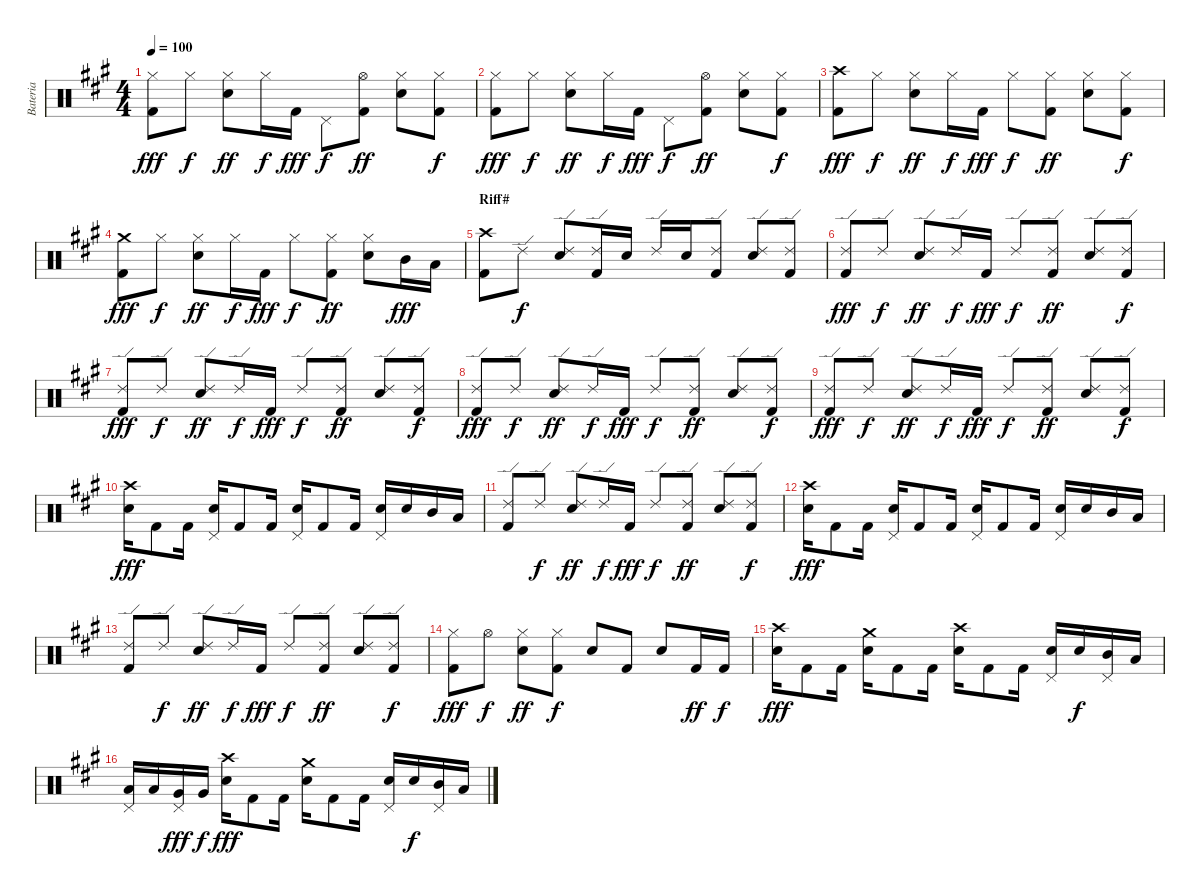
\track ("Bateria" "Bateria") {instrument percussion}
\staff {score}
\articulation defaults
\ts (4 4)
\tempo 100
\clef neutral
\ks f#minor
("Hi-Hat (closed)" "Kick (hit) 2").8{dy fff} "Hi-Hat (closed)".8{dy f} ("Hi-Hat (closed)" "Electric Snare (hit)").8{dy ff} "Hi-Hat (closed)".16{dy f} "Kick (hit) 2".16{dy fff} "Pedal Hi-Hat (hit)".8{dy f} ("Hi-Hat (open)" "Kick (hit) 2").8{dy ff} ("Hi-Hat (closed)" "Electric Snare (hit)").8 ("Hi-Hat (closed)" "Kick (hit) 2").8{dy f} |
("Hi-Hat (closed)" "Kick (hit) 2").8{dy fff} "Hi-Hat (closed)".8{dy f} ("Hi-Hat (closed)" "Electric Snare (hit)").8{dy ff} "Hi-Hat (closed)".16{dy f} "Kick (hit) 2".16{dy fff} "Pedal Hi-Hat (hit)".8{dy f} ("Hi-Hat (open)" "Kick (hit) 2").8{dy ff} ("Hi-Hat (closed)" "Electric Snare (hit)").8 ("Hi-Hat (closed)" "Kick (hit) 2").8{dy f} |
("Crash high (hit)" "Kick (hit) 2").8{dy fff} "Hi-Hat (closed)".8{dy f} ("Hi-Hat (closed)" "Electric Snare (hit)").8{dy ff} "Hi-Hat (closed)".16{dy f} "Kick (hit) 2".16{dy fff} "Hi-Hat (closed)".8{dy f} ("Hi-Hat (closed)" "Kick (hit) 2").8{dy ff} ("Hi-Hat (closed)" "Electric Snare (hit)").8 ("Hi-Hat (closed)" "Kick (hit) 2").8{dy f} |
("Crash medium (hit)" "Kick (hit) 2").8{dy fff} "Hi-Hat (closed)".8{dy f} ("Hi-Hat (closed)" "Electric Snare (hit)").8{dy ff} "Hi-Hat (closed)".16{dy f} "Kick (hit) 2".16{dy fff} "Hi-Hat (closed)".8{dy f} ("Hi-Hat (closed)" "Kick (hit) 2").8{dy ff} ("Hi-Hat (closed)" "Electric Snare (hit)").8 "Mid Tom (hit)".16{dy fff} "Low Tom (hit)".16 |
\section ("" "Riff#")
("Crash high (hit)" "Kick (hit) 2").8 "Ride (edge) 2".8{dy f} ("Ride (edge) 2" "Electric Snare (hit)").8 ("Ride (edge) 2" "Kick (hit) 2").16 "Electric Snare (hit)".16 "Ride (edge) 2".16 "Electric Snare (hit)".16 ("Ride (edge) 2" "Kick (hit) 2").8 ("Ride (edge) 2" "Electric Snare (hit)").8 ("Ride (edge) 2" "Kick (hit) 2").8 |
("Ride (edge) 2" "Kick (hit) 2").8{dy fff} "Ride (edge) 2".8{dy f} ("Ride (edge) 2" "Electric Snare (hit)").8{dy ff} "Ride (edge) 2".16{dy f} "Kick (hit) 2".16{dy fff} "Ride (edge) 2".8{dy f} ("Ride (edge) 2" "Kick (hit) 2").8{dy ff} ("Ride (edge) 2" "Electric Snare (hit)").8 ("Ride (edge) 2" "Kick (hit) 2").8{dy f} |
("Ride (edge) 2" "Kick (hit) 2").8{dy fff} "Ride (edge) 2".8{dy f} ("Ride (edge) 2" "Electric Snare (hit)").8{dy ff} "Ride (edge) 2".16{dy f} "Kick (hit) 2".16{dy fff} "Ride (edge) 2".8{dy f} ("Ride (edge) 2" "Kick (hit) 2").8{dy ff} ("Ride (edge) 2" "Electric Snare (hit)").8 ("Ride (edge) 2" "Kick (hit) 2").8{dy f} |
("Ride (edge) 2" "Kick (hit) 2").8{dy fff} "Ride (edge) 2".8{dy f} ("Ride (edge) 2" "Electric Snare (hit)").8{dy ff} "Ride (edge) 2".16{dy f} "Kick (hit) 2".16{dy fff} "Ride (edge) 2".8{dy f} ("Ride (edge) 2" "Kick (hit) 2").8{dy ff} ("Ride (edge) 2" "Electric Snare (hit)").8 ("Ride (edge) 2" "Kick (hit) 2").8{dy f} |
("Ride (edge) 2" "Kick (hit) 2").8{dy fff} "Ride (edge) 2".8{dy f} ("Ride (edge) 2" "Electric Snare (hit)").8{dy ff} "Ride (edge) 2".16{dy f} "Kick (hit) 2".16{dy fff} "Ride (edge) 2".8{dy f} ("Ride (edge) 2" "Kick (hit) 2").8{dy ff} ("Ride (edge) 2" "Electric Snare (hit)").8 ("Ride (edge) 2" "Kick (hit) 2").8{dy f} |
("Crash high (hit)" "Electric Snare (hit)").16{dy fff} "Kick (hit) 2".8 "Kick (hit) 2".16 ("Pedal Hi-Hat (hit)" "Electric Snare (hit)").16 "Kick (hit) 2".8 "Kick (hit) 2".16 ("Pedal Hi-Hat (hit)" "Electric Snare (hit)").16 "Kick (hit) 2".8 "Kick (hit) 2".16 ("Pedal Hi-Hat (hit)" "Electric Snare (hit)").16 "Electric Snare (hit)".16 "Mid Tom (hit)".16 "Low Tom (hit)".16 |
("Ride (edge) 2" "Kick (hit) 2").8 "Ride (edge) 2".8{dy f} ("Ride (edge) 2" "Electric Snare (hit)").8{dy ff} "Ride (edge) 2".16{dy f} "Kick (hit) 2".16{dy fff} "Ride (edge) 2".8{dy f} ("Ride (edge) 2" "Kick (hit) 2").8{dy ff} ("Ride (edge) 2" "Electric Snare (hit)").8 ("Ride (edge) 2" "Kick (hit) 2").8{dy f} |
("Crash high (hit)" "Electric Snare (hit)").16{dy fff} "Kick (hit) 2".8 "Kick (hit) 2".16 ("Pedal Hi-Hat (hit)" "Electric Snare (hit)").16 "Kick (hit) 2".8 "Kick (hit) 2".16 ("Pedal Hi-Hat (hit)" "Electric Snare (hit)").16 "Kick (hit) 2".8 "Kick (hit) 2".16 ("Pedal Hi-Hat (hit)" "Electric Snare (hit)").16 "Electric Snare (hit)".16 "Mid Tom (hit)".16 "Low Tom (hit)".16 |
("Ride (edge) 2" "Kick (hit) 2").8 "Ride (edge) 2".8{dy f} ("Ride (edge) 2" "Electric Snare (hit)").8{dy ff} "Ride (edge) 2".16{dy f} "Kick (hit) 2".16{dy fff} "Ride (edge) 2".8{dy f} ("Ride (edge) 2" "Kick (hit) 2").8{dy ff} ("Ride (edge) 2" "Electric Snare (hit)").8 ("Ride (edge) 2" "Kick (hit) 2").8{dy f} |
("Hi-Hat (closed)" "Kick (hit) 2").8{dy fff} "Hi-Hat (open)".8{dy f} ("Hi-Hat (closed)" "Electric Snare (hit)").8{dy ff} ("Hi-Hat (closed)" "Kick (hit) 2").8{dy f} "Electric Snare (hit)".8 "Kick (hit) 2".8 "Electric Snare (hit)".8 "Kick (hit) 2".16{dy ff} "Kick (hit) 2".16{dy f} |
("Crash high (hit)" "Electric Snare (hit)").16{dy fff} "Kick (hit) 2".8 "Kick (hit) 2".16 ("Crash medium (hit)" "Electric Snare (hit)").16 "Kick (hit) 2".8 "Kick (hit) 2".16 ("Crash high (hit)" "Electric Snare (hit)").16 "Kick (hit) 2".8 "Kick (hit) 2".16 ("Pedal Hi-Hat (hit)" "Electric Snare (hit)").16 "Electric Snare (hit)".16{dy f} ("Pedal Hi-Hat (hit)" "Mid Tom (hit)").16 "Low Tom (hit)".16 |
("Pedal Hi-Hat (hit)" "Low Tom (hit)").16 "Low Tom (hit)".16 ("Pedal Hi-Hat (hit)" "Very Low Tom (hit)").16{dy fff} "Very Low Tom (hit)".16{dy f} ("Crash high (hit)" "Electric Snare (hit)").16{dy fff} "Kick (hit) 2".8 "Kick (hit) 2".16 ("Crash medium (hit)" "Electric Snare (hit)").16 "Kick (hit) 2".8 "Kick (hit) 2".16 ("Pedal Hi-Hat (hit)" "Electric Snare (hit)").16 "Electric Snare (hit)".16{dy f} ("Pedal Hi-Hat (hit)" "Mid Tom (hit)").16 "Low Tom (hit)".16
